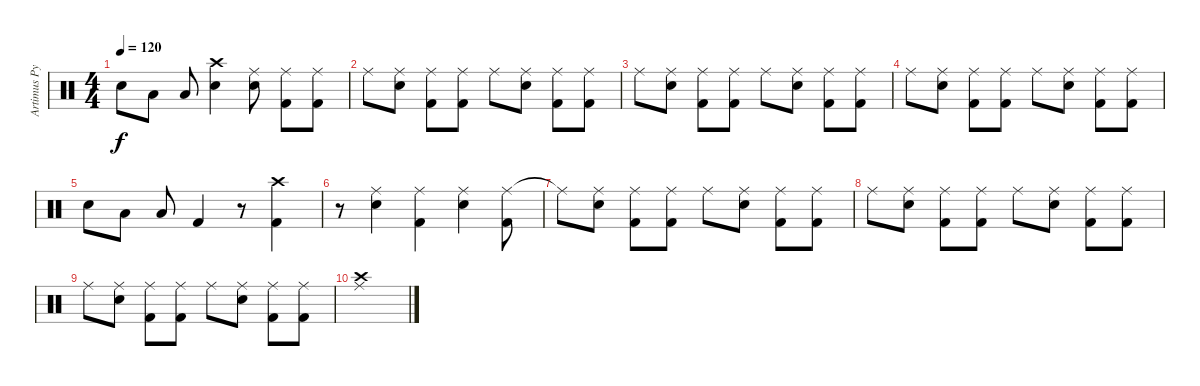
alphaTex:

\track ("Artimus Pyle" "Artimus Py") {instrument percussion}
\staff {score}
\articulation defaults
\ts (4 4)
\tempo 120
\clef neutral
\ks c "Electric Snare (hit)".8{dy f} "Low Tom (hit)".8 "Low Tom (hit)".8
("Crash high (hit)" "Electric Snare (hit)").4 ("Ride (middle)" "Electric Snare (hit)").8 ("Ride (middle)" "Kick (hit) 2").8 ("Ride (middle)" "Kick (hit) 2").8 |
"Ride (middle)".8 ("Ride (middle)" "Electric Snare (hit)").8 ("Ride (middle)" "Kick (hit) 2").8 ("Ride (middle)" "Kick (hit) 2").8 "Ride (middle)".8 ("Ride (middle)" "Electric Snare (hit)").8 ("Ride (middle)" "Kick (hit) 2").8 ("Ride (middle)" "Kick (hit) 2").8 |
"Ride (middle)".8 ("Ride (middle)" "Electric Snare (hit)").8 ("Ride (middle)" "Kick (hit) 2").8 ("Ride (middle)" "Kick (hit) 2").8 "Ride (middle)".8 ("Ride (middle)" "Electric Snare (hit)").8 ("Ride (middle)" "Kick (hit) 2").8 ("Ride (middle)" "Kick (hit) 2").8 |
"Ride (middle)".8 ("Ride (middle)" "Electric Snare (hit)").8 ("Ride (middle)" "Kick (hit) 2").8 ("Ride (middle)" "Kick (hit) 2").8 "Ride (middle)".8 ("Ride (middle)" "Electric Snare (hit)").8 ("Ride (middle)" "Kick (hit) 2").8 ("Ride (middle)" "Kick (hit) 2").8 |
"Electric Snare (hit)".8 "Low Tom (hit)".8 "Low Tom (hit)".8 "Kick (hit) 2".4 r.8 ("Crash high (hit)" "Kick (hit) 2").4 |
r.8 ("Ride (middle)" "Electric Snare (hit)").4 ("Ride (middle)" "Kick (hit) 2").4 ("Ride (middle)" "Electric Snare (hit)").4 ("Ride (middle)" "Kick (hit) 2").8 |
"Ride (middle)"{t}.8 ("Ride (middle)" "Electric Snare (hit)").8 ("Ride (middle)" "Kick (hit) 2").8 ("Ride (middle)" "Kick (hit) 2").8 "Ride (middle)".8 ("Ride (middle)" "Electric Snare (hit)").8 ("Ride (middle)" "Kick (hit) 2").8 ("Ride (middle)" "Kick (hit) 2").8 |
"Ride (middle)".8 ("Ride (middle)" "Electric Snare (hit)").8 ("Ride (middle)" "Kick (hit) 2").8 ("Ride (middle)" "Kick (hit) 2").8 "Ride (middle)".8 ("Ride (middle)" "Electric Snare (hit)").8 ("Ride (middle)" "Kick (hit) 2").8 ("Ride (middle)" "Kick (hit) 2").8 |
"Ride (middle)".8 ("Ride (middle)" "Electric Snare (hit)").8 ("Ride (middle)" "Kick (hit) 2").8 ("Ride (middle)" "Kick (hit) 2").8 "Ride (middle)".8 ("Ride (middle)" "Electric Snare (hit)").8 ("Ride (middle)" "Kick (hit) 2").8 ("Ride (middle)" "Kick (hit) 2").8 |
("Crash high (hit)" "Ride (middle)").1
